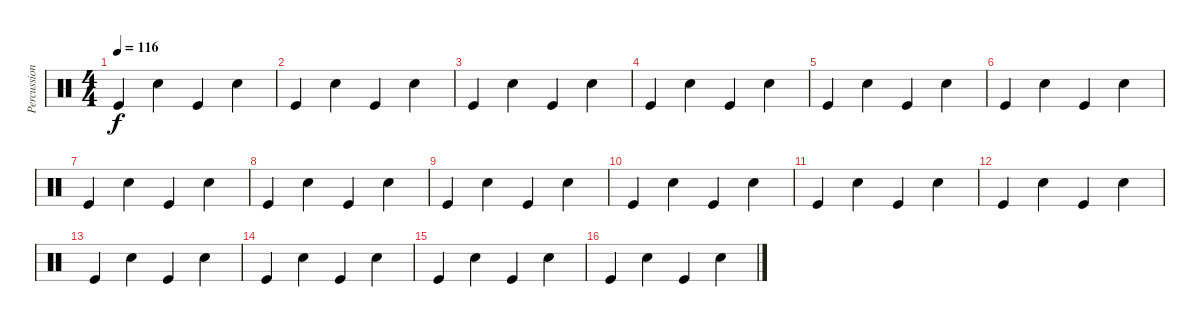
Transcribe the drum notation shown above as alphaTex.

\track ("Percussions" "Percussion") {instrument percussion}
\staff {score}
\articulation defaults
\ts (4 4)
\tempo 116
\clef neutral
\ks c "Kick (hit)".4{dy f} "Snare (hit) 2".4 "Kick (hit)".4 "Snare (hit) 2".4
|
"Kick (hit)".4 "Snare (hit) 2".4 "Kick (hit)".4 "Snare (hit) 2".4 |
"Kick (hit)".4 "Snare (hit) 2".4 "Kick (hit)".4 "Snare (hit) 2".4 |
"Kick (hit)".4 "Snare (hit) 2".4 "Kick (hit)".4 "Snare (hit) 2".4 |
"Kick (hit)".4 "Snare (hit) 2".4 "Kick (hit)".4 "Snare (hit) 2".4 |
"Kick (hit)".4 "Snare (hit) 2".4 "Kick (hit)".4 "Snare (hit) 2".4 |
"Kick (hit)".4 "Snare (hit) 2".4 "Kick (hit)".4 "Snare (hit) 2".4 |
"Kick (hit)".4 "Snare (hit) 2".4 "Kick (hit)".4 "Snare (hit) 2".4 |
"Kick (hit)".4 "Snare (hit) 2".4 "Kick (hit)".4 "Snare (hit) 2".4 |
"Kick (hit)".4 "Snare (hit) 2".4 "Kick (hit)".4 "Snare (hit) 2".4 |
"Kick (hit)".4 "Snare (hit) 2".4 "Kick (hit)".4 "Snare (hit) 2".4 |
"Kick (hit)".4 "Snare (hit) 2".4 "Kick (hit)".4 "Snare (hit) 2".4 |
"Kick (hit)".4 "Snare (hit) 2".4 "Kick (hit)".4 "Snare (hit) 2".4 |
"Kick (hit)".4 "Snare (hit) 2".4 "Kick (hit)".4 "Snare (hit) 2".4 |
"Kick (hit)".4 "Snare (hit) 2".4 "Kick (hit)".4 "Snare (hit) 2".4 |
"Kick (hit)".4 "Snare (hit) 2".4 "Kick (hit)".4 "Snare (hit) 2".4
